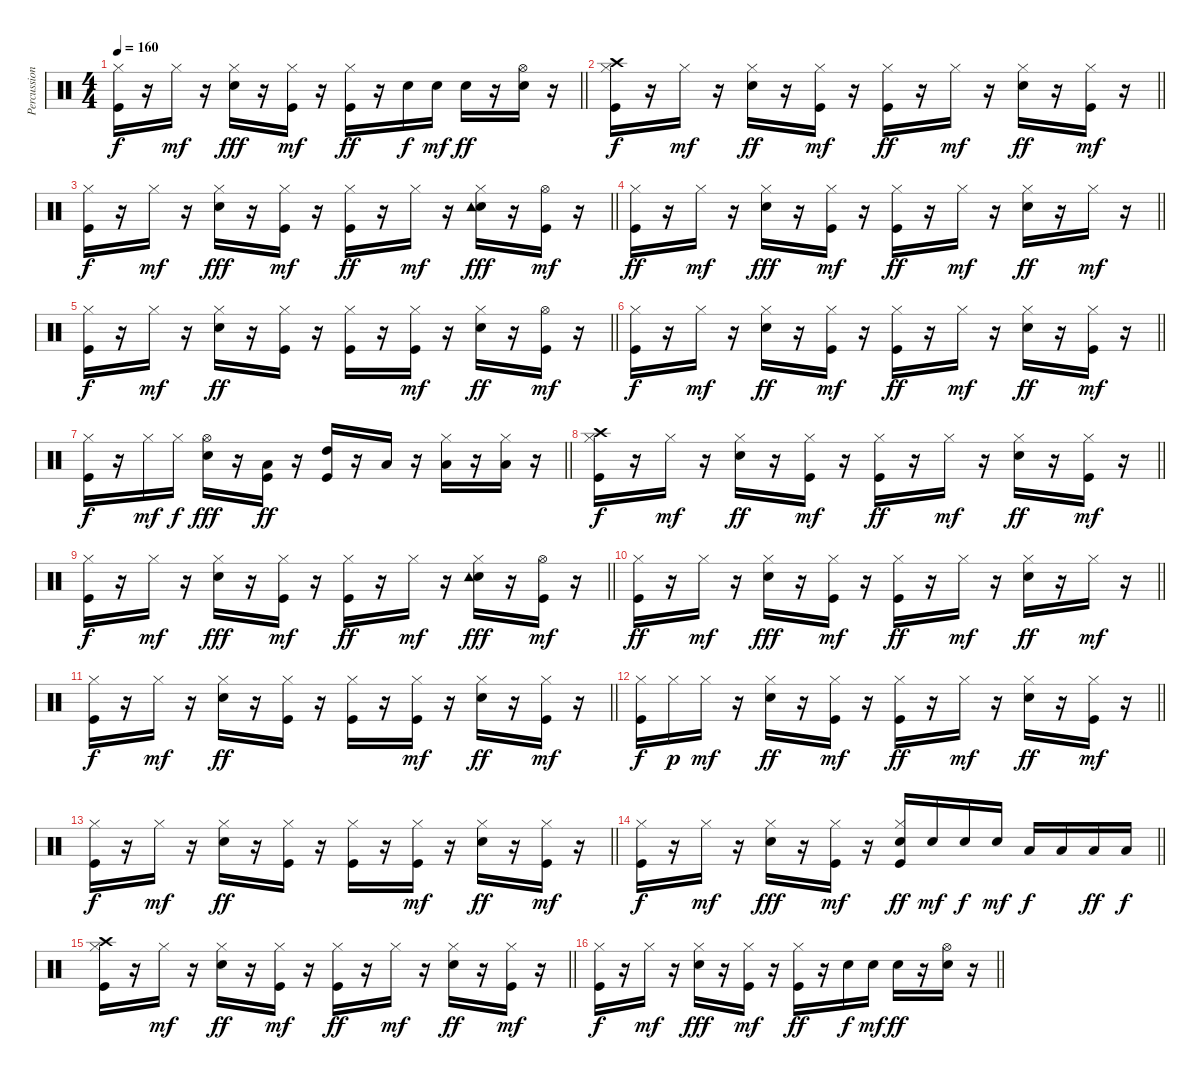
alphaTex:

\track ("Percussions" "Percussion") {instrument percussion}
\staff {score}
\articulation defaults
\ts (4 4)
\tempo 160
\clef neutral
\barLineRight lightlight
\ks c
("Kick (hit)" "Hi-Hat (closed)").16{dy f} r.16 "Hi-Hat (closed)".16{dy mf} r.16 ("Snare (hit) 2" "Hi-Hat (closed)").16{dy fff} r.16 ("Kick (hit)" "Hi-Hat (closed)").16{dy mf} r.16 ("Kick (hit)" "Hi-Hat (closed)").16{dy ff} r.16 "Snare (hit) 2".16{dy f} "Snare (hit) 2".16{dy mf} "Snare (hit) 2".16{dy ff} r.16 ("Snare (hit) 2" "Hi-Hat (open)").16 r.16 |
\barLineRight lightlight
("Kick (hit)" "Hi-Hat (closed)" "Crash high (hit)").16{dy f} r.16 "Hi-Hat (closed)".16{dy mf} r.16 ("Snare (hit) 2" "Hi-Hat (closed)").16{dy ff} r.16 ("Kick (hit)" "Hi-Hat (closed)").16{dy mf} r.16 ("Kick (hit)" "Hi-Hat (closed)").16{dy ff} r.16 "Hi-Hat (closed)".16{dy mf} r.16 ("Snare (hit) 2" "Hi-Hat (closed)").16{dy ff} r.16 ("Kick (hit)" "Hi-Hat (closed)").16{dy mf} r.16 |
\barLineRight lightlight
("Kick (hit)" "Hi-Hat (closed)").16{dy f} r.16 "Hi-Hat (closed)".16{dy mf} r.16 ("Snare (hit) 2" "Hi-Hat (closed)").16{dy fff} r.16 ("Kick (hit)" "Hi-Hat (closed)").16{dy mf} r.16 ("Kick (hit)" "Hi-Hat (closed)").16{dy ff} r.16 "Hi-Hat (closed)".16{dy mf} r.16 ("Snare (hit) 2" "Hi-Hat (closed)" "Tambourine (hit)").16{dy fff} r.16 ("Kick (hit)" "Hi-Hat (open)").16{dy mf} r.16 |
\barLineRight lightlight
("Kick (hit)" "Hi-Hat (closed)").16{dy ff} r.16 "Hi-Hat (closed)".16{dy mf} r.16 ("Snare (hit) 2" "Hi-Hat (closed)").16{dy fff} r.16 ("Kick (hit)" "Hi-Hat (closed)").16{dy mf} r.16 ("Kick (hit)" "Hi-Hat (closed)").16{dy ff} r.16 "Hi-Hat (closed)".16{dy mf} r.16 ("Snare (hit) 2" "Hi-Hat (closed)").16{dy ff} r.16 "Hi-Hat (closed)".16{dy mf} r.16 |
\barLineRight lightlight
("Kick (hit)" "Hi-Hat (closed)").16{dy f} r.16 "Hi-Hat (closed)".16{dy mf} r.16 ("Snare (hit) 2" "Hi-Hat (closed)").16{dy ff} r.16 ("Kick (hit)" "Hi-Hat (closed)").16 r.16 ("Kick (hit)" "Hi-Hat (closed)").16 r.16 ("Kick (hit)" "Hi-Hat (closed)").16{dy mf} r.16 ("Snare (hit) 2" "Hi-Hat (closed)").16{dy ff} r.16 ("Kick (hit)" "Hi-Hat (open)").16{dy mf} r.16 |
\barLineRight lightlight
("Kick (hit)" "Hi-Hat (closed)").16{dy f} r.16 "Hi-Hat (closed)".16{dy mf} r.16 ("Snare (hit) 2" "Hi-Hat (closed)").16{dy ff} r.16 ("Kick (hit)" "Hi-Hat (closed)").16{dy mf} r.16 ("Kick (hit)" "Hi-Hat (closed)").16{dy ff} r.16 "Hi-Hat (closed)".16{dy mf} r.16 ("Snare (hit) 2" "Hi-Hat (closed)").16{dy ff} r.16 ("Kick (hit)" "Hi-Hat (closed)").16{dy mf} r.16 |
\barLineRight lightlight
("Kick (hit)" "Hi-Hat (closed)").16{dy f} r.16 "Hi-Hat (closed)".16{dy mf} "Hi-Hat (closed)".16{dy f} ("Snare (hit) 2" "Hi-Hat (open)").16{dy fff} r.16 ("Kick (hit)" "Low Tom (hit)").16{dy ff} r.16 ("Kick (hit)" "High Tom (hit)").16 r.16 "Low Tom (hit)".16 r.16 ("Hi-Hat (closed)" "Low Tom (hit)").16 r.16 ("Hi-Hat (closed)" "Low Floor Tom (hit)").16 r.16 |
\barLineRight lightlight
("Kick (hit)" "Hi-Hat (closed)" "Crash high (hit)").16{dy f} r.16 "Hi-Hat (closed)".16{dy mf} r.16 ("Snare (hit) 2" "Hi-Hat (closed)").16{dy ff} r.16 ("Kick (hit)" "Hi-Hat (closed)").16{dy mf} r.16 ("Kick (hit)" "Hi-Hat (closed)").16{dy ff} r.16 "Hi-Hat (closed)".16{dy mf} r.16 ("Snare (hit) 2" "Hi-Hat (closed)").16{dy ff} r.16 ("Kick (hit)" "Hi-Hat (closed)").16{dy mf} r.16 |
\barLineRight lightlight
("Kick (hit)" "Hi-Hat (closed)").16{dy f} r.16 "Hi-Hat (closed)".16{dy mf} r.16 ("Snare (hit) 2" "Hi-Hat (closed)").16{dy fff} r.16 ("Kick (hit)" "Hi-Hat (closed)").16{dy mf} r.16 ("Kick (hit)" "Hi-Hat (closed)").16{dy ff} r.16 "Hi-Hat (closed)".16{dy mf} r.16 ("Snare (hit) 2" "Hi-Hat (closed)" "Tambourine (hit)").16{dy fff} r.16 ("Kick (hit)" "Hi-Hat (open)").16{dy mf} r.16 |
\barLineRight lightlight
("Kick (hit)" "Hi-Hat (closed)").16{dy ff} r.16 "Hi-Hat (closed)".16{dy mf} r.16 ("Snare (hit) 2" "Hi-Hat (closed)").16{dy fff} r.16 ("Kick (hit)" "Hi-Hat (closed)").16{dy mf} r.16 ("Kick (hit)" "Hi-Hat (closed)").16{dy ff} r.16 "Hi-Hat (closed)".16{dy mf} r.16 ("Snare (hit) 2" "Hi-Hat (closed)").16{dy ff} r.16 "Hi-Hat (closed)".16{dy mf} r.16 |
\barLineRight lightlight
("Kick (hit)" "Hi-Hat (closed)").16{dy f} r.16 "Hi-Hat (closed)".16{dy mf} r.16 ("Snare (hit) 2" "Hi-Hat (closed)").16{dy ff} r.16 ("Kick (hit)" "Hi-Hat (closed)").16 r.16 ("Kick (hit)" "Hi-Hat (closed)").16 r.16 ("Kick (hit)" "Hi-Hat (closed)").16{dy mf} r.16 ("Snare (hit) 2" "Hi-Hat (closed)").16{dy ff} r.16 ("Kick (hit)" "Hi-Hat (closed)").16{dy mf} r.16 |
\barLineRight lightlight
("Kick (hit)" "Hi-Hat (closed)").16{dy f} "Hi-Hat (closed)".16{dy p} "Hi-Hat (closed)".16{dy mf} r.16 ("Snare (hit) 2" "Hi-Hat (closed)").16{dy ff} r.16 ("Kick (hit)" "Hi-Hat (closed)").16{dy mf} r.16 ("Kick (hit)" "Hi-Hat (closed)").16{dy ff} r.16 "Hi-Hat (closed)".16{dy mf} r.16 ("Snare (hit) 2" "Hi-Hat (closed)").16{dy ff} r.16 ("Kick (hit)" "Hi-Hat (closed)").16{dy mf} r.16 |
\barLineRight lightlight
("Kick (hit)" "Hi-Hat (closed)").16{dy f} r.16 "Hi-Hat (closed)".16{dy mf} r.16 ("Snare (hit) 2" "Hi-Hat (closed)").16{dy ff} r.16 ("Kick (hit)" "Hi-Hat (closed)").16 r.16 ("Kick (hit)" "Hi-Hat (closed)").16 r.16 ("Kick (hit)" "Hi-Hat (closed)").16{dy mf} r.16 ("Snare (hit) 2" "Hi-Hat (closed)").16{dy ff} r.16 ("Kick (hit)" "Hi-Hat (closed)").16{dy mf} r.16 |
\barLineRight lightlight
("Kick (hit)" "Hi-Hat (closed)").16{dy f} r.16 "Hi-Hat (closed)".16{dy mf} r.16 ("Snare (hit) 2" "Hi-Hat (closed)").16{dy fff} r.16 ("Kick (hit)" "Hi-Hat (closed)").16{dy mf} r.16 ("Kick (hit)" "Snare (hit) 2" "Hi-Hat (closed)").16{dy ff} "Snare (hit) 2".16{dy mf} "Snare (hit) 2".16{dy f} "Snare (hit) 2".16{dy mf} "Low Tom (hit)".16{dy f} "Low Tom (hit)".16 "Low Tom (hit)".16{dy ff} "Low Tom (hit)".16{dy f} |
\barLineRight lightlight
("Kick (hit)" "Hi-Hat (closed)" "Crash high (hit)").16 r.16 "Hi-Hat (closed)".16{dy mf} r.16 ("Snare (hit) 2" "Hi-Hat (closed)").16{dy ff} r.16 ("Kick (hit)" "Hi-Hat (closed)").16{dy mf} r.16 ("Kick (hit)" "Hi-Hat (closed)").16{dy ff} r.16 "Hi-Hat (closed)".16{dy mf} r.16 ("Snare (hit) 2" "Hi-Hat (closed)").16{dy ff} r.16 ("Kick (hit)" "Hi-Hat (closed)").16{dy mf} r.16 |
\barLineRight lightlight
("Kick (hit)" "Hi-Hat (closed)").16{dy f} r.16 "Hi-Hat (closed)".16{dy mf} r.16 ("Snare (hit) 2" "Hi-Hat (closed)").16{dy fff} r.16 ("Kick (hit)" "Hi-Hat (closed)").16{dy mf} r.16 ("Kick (hit)" "Hi-Hat (closed)").16{dy ff} r.16 "Snare (hit) 2".16{dy f} "Snare (hit) 2".16{dy mf} "Snare (hit) 2".16{dy ff} r.16 ("Snare (hit) 2" "Hi-Hat (open)").16 r.16
